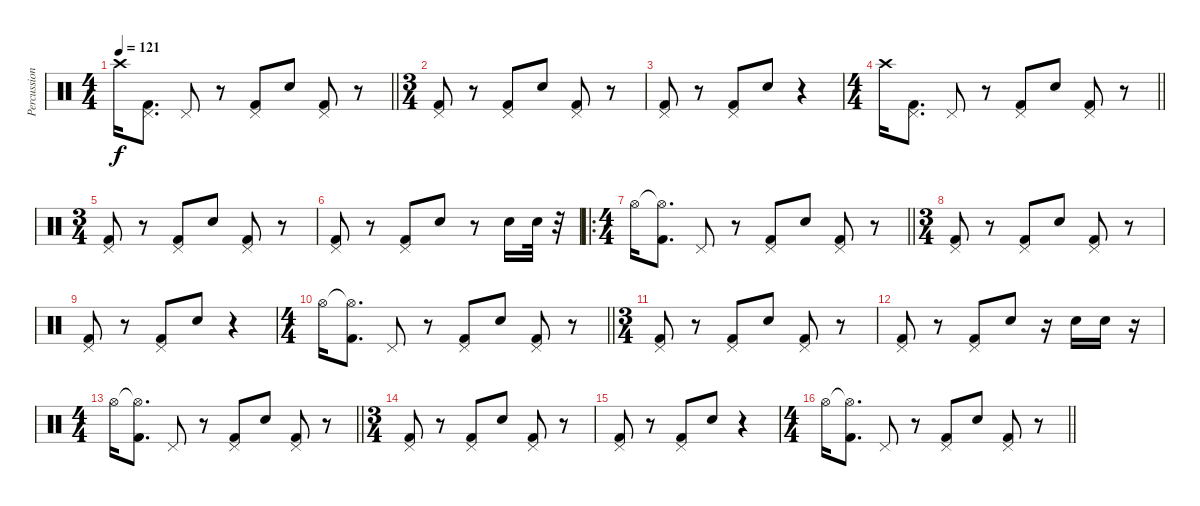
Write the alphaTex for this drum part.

\track ("Percussion" "Percussion") {instrument percussion}
\staff {score}
\articulation defaults
\ts (4 4)
\tempo 121
\clef neutral
\barLineRight lightlight
\ks c "Crash high (hit)".16{dy f}
("Pedal Hi-Hat (hit)" "Kick (hit) 2").8{d} "Pedal Hi-Hat (hit)".8 r.8 ("Pedal Hi-Hat (hit)" "Kick (hit) 2").8 "Electric Snare (hit)".8 ("Pedal Hi-Hat (hit)" "Kick (hit) 2").8 r.8 |
\ts (3 4)
("Pedal Hi-Hat (hit)" "Kick (hit) 2").8 r.8 ("Pedal Hi-Hat (hit)" "Kick (hit) 2").8 "Electric Snare (hit)".8 ("Pedal Hi-Hat (hit)" "Kick (hit) 2").8 r.8 |
("Pedal Hi-Hat (hit)" "Kick (hit) 2").8 r.8 ("Pedal Hi-Hat (hit)" "Kick (hit) 2").8 "Electric Snare (hit)".8 r.4 |
\ts (4 4)
\barLineRight lightlight "Crash high (hit)".16
("Pedal Hi-Hat (hit)" "Kick (hit) 2").8{d} "Pedal Hi-Hat (hit)".8 r.8 ("Pedal Hi-Hat (hit)" "Kick (hit) 2").8 "Electric Snare (hit)".8 ("Pedal Hi-Hat (hit)" "Kick (hit) 2").8 r.8 |
\ts (3 4)
("Pedal Hi-Hat (hit)" "Kick (hit) 2").8 r.8 ("Pedal Hi-Hat (hit)" "Kick (hit) 2").8 "Electric Snare (hit)".8 ("Pedal Hi-Hat (hit)" "Kick (hit) 2").8 r.8 |
("Pedal Hi-Hat (hit)" "Kick (hit) 2").8 r.8 ("Pedal Hi-Hat (hit)" "Kick (hit) 2").8 "Electric Snare (hit)".8 r.8 "Electric Snare (hit)".16 "Electric Snare (hit)".32 r.32 |
\ro
\ts (4 4)
\barLineRight lightlight "Hi-Hat (open)".16
("Hi-Hat (open)"{t} "Kick (hit) 2").8{d} "Pedal Hi-Hat (hit)".8 r.8 ("Pedal Hi-Hat (hit)" "Kick (hit) 2").8 "Electric Snare (hit)".8 ("Pedal Hi-Hat (hit)" "Kick (hit) 2").8 r.8 |
\ts (3 4)
("Pedal Hi-Hat (hit)" "Kick (hit) 2").8 r.8 ("Pedal Hi-Hat (hit)" "Kick (hit) 2").8 "Electric Snare (hit)".8 ("Pedal Hi-Hat (hit)" "Kick (hit) 2").8 r.8 |
("Pedal Hi-Hat (hit)" "Kick (hit) 2").8 r.8 ("Pedal Hi-Hat (hit)" "Kick (hit) 2").8 "Electric Snare (hit)".8 r.4 |
\ts (4 4)
\barLineRight lightlight "Hi-Hat (open)".16
("Hi-Hat (open)"{t} "Kick (hit) 2").8{d} "Pedal Hi-Hat (hit)".8 r.8 ("Pedal Hi-Hat (hit)" "Kick (hit) 2").8 "Electric Snare (hit)".8 ("Pedal Hi-Hat (hit)" "Kick (hit) 2").8 r.8 |
\ts (3 4)
("Pedal Hi-Hat (hit)" "Kick (hit) 2").8 r.8 ("Pedal Hi-Hat (hit)" "Kick (hit) 2").8 "Electric Snare (hit)".8 ("Pedal Hi-Hat (hit)" "Kick (hit) 2").8 r.8 |
("Pedal Hi-Hat (hit)" "Kick (hit) 2").8 r.8 ("Pedal Hi-Hat (hit)" "Kick (hit) 2").8 "Electric Snare (hit)".8 r.16 "Electric Snare (hit)".16 "Electric Snare (hit)".16 r.16 |
\ts (4 4)
\barLineRight lightlight "Hi-Hat (open)".16
("Hi-Hat (open)"{t} "Kick (hit) 2").8{d} "Pedal Hi-Hat (hit)".8 r.8 ("Pedal Hi-Hat (hit)" "Kick (hit) 2").8 "Electric Snare (hit)".8 ("Pedal Hi-Hat (hit)" "Kick (hit) 2").8 r.8 |
\ts (3 4)
("Pedal Hi-Hat (hit)" "Kick (hit) 2").8 r.8 ("Pedal Hi-Hat (hit)" "Kick (hit) 2").8 "Electric Snare (hit)".8 ("Pedal Hi-Hat (hit)" "Kick (hit) 2").8 r.8 |
("Pedal Hi-Hat (hit)" "Kick (hit) 2").8 r.8 ("Pedal Hi-Hat (hit)" "Kick (hit) 2").8 "Electric Snare (hit)".8 r.4 |
\ts (4 4)
\barLineRight lightlight "Hi-Hat (open)".16
("Hi-Hat (open)"{t} "Kick (hit) 2").8{d} "Pedal Hi-Hat (hit)".8 r.8 ("Pedal Hi-Hat (hit)" "Kick (hit) 2").8 "Electric Snare (hit)".8 ("Pedal Hi-Hat (hit)" "Kick (hit) 2").8 r.8
